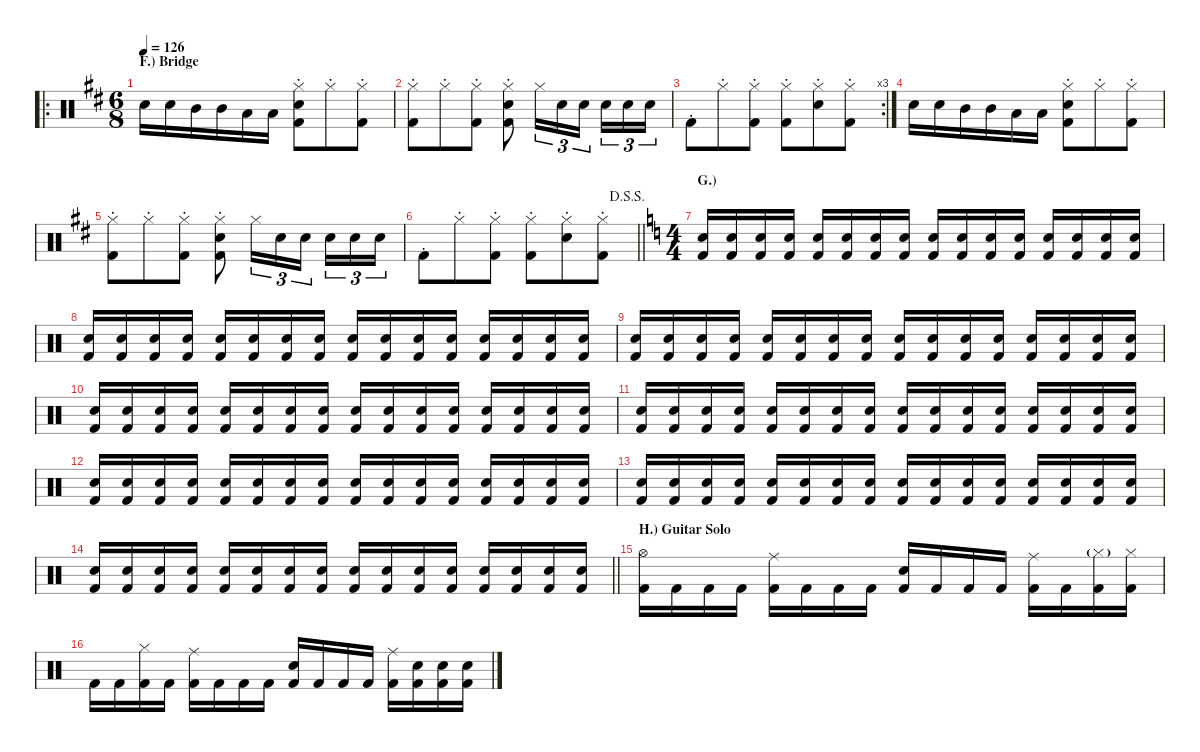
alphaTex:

\defaultSystemsLayout 4
\hideDynamics
\bracketExtendMode nobrackets
\singleTrackTrackNamePolicy hidden
\multiTrackTrackNamePolicy hidden
\firstSystemTrackNameMode fullname
\firstSystemTrackNameOrientation horizontal
\otherSystemsTrackNameOrientation horizontal
\track ("Drums" "drm.") {instrument percussion}
\staff {score}
\articulation defaults
\ro
\ts (6 8)
\section ("" "F.) Bridge")
\tempo 126
\clef neutral
\ks d "Snare (hit) 2"{acc forcenatural}.16{dy f beam Down} "Snare (hit) 2"{acc forcenatural}.16{beam Down} "Mid Tom (hit)"{acc forcenatural}.16{beam Down} "Mid Tom (hit)"{acc forcenatural}.16{beam Down} "Low Tom (hit)"{acc forcenatural}.16{beam Down} "Low Tom (hit)"{acc forcenatural}.16{beam Down}
("Snare (hit) 2"{st acc forcenatural} "Hi-Hat (closed)"{st acc forcenatural} "Kick (hit) 2"{st acc forcenatural}).8{beam Down} "Hi-Hat (closed)"{st acc forcenatural}.8{beam Down} ("Hi-Hat (closed)"{st acc forcenatural} "Kick (hit) 2"{st acc forcenatural}).8{beam Down} |
("Hi-Hat (closed)"{st acc forcenatural} "Kick (hit) 2"{st acc forcenatural}).8{beam Down} "Hi-Hat (closed)"{st acc forcenatural}.8{beam Down} ("Hi-Hat (closed)"{st acc forcenatural} "Kick (hit) 2"{st acc forcenatural}).8{beam Down} ("Snare (hit) 2"{st acc forcenatural} "Hi-Hat (closed)"{st acc forcenatural} "Kick (hit) 2"{st acc forcenatural}).8{beam Down} "Hi-Hat (closed)"{acc forcenatural}.16{tu (3 2) beam Down} "Snare (hit) 2"{acc forcenatural}.16{tu (3 2) beam Down} "Snare (hit) 2"{acc forcenatural}.16{tu (3 2) beam Down} "Snare (hit) 2"{acc forcenatural}.16{tu (3 2) beam Down} "Snare (hit) 2"{acc forcenatural}.16{tu (3 2) beam Down} "Snare (hit) 2"{acc forcenatural}.16{tu (3 2) beam Down} |
\rc 3 "Kick (hit) 2"{st acc forcenatural}.8{beam Down} "Hi-Hat (closed)"{st acc forcenatural}.8{beam Down}
("Hi-Hat (closed)"{st acc forcenatural} "Kick (hit) 2"{st acc forcenatural}).8{beam Down} ("Hi-Hat (closed)"{st acc forcenatural} "Kick (hit) 2"{st acc forcenatural}).8{beam Down} ("Snare (hit) 2"{st acc forcenatural} "Hi-Hat (closed)"{st acc forcenatural}).8{beam Down} ("Hi-Hat (closed)"{st acc forcenatural} "Kick (hit) 2"{st acc forcenatural}).8{beam Down} |
"Snare (hit) 2"{acc forcenatural}.16{beam Down} "Snare (hit) 2"{acc forcenatural}.16{beam Down} "Mid Tom (hit)"{acc forcenatural}.16{beam Down} "Mid Tom (hit)"{acc forcenatural}.16{beam Down} "Low Tom (hit)"{acc forcenatural}.16{beam Down} "Low Tom (hit)"{acc forcenatural}.16{beam Down} ("Snare (hit) 2"{st acc forcenatural} "Hi-Hat (closed)"{st acc forcenatural} "Kick (hit) 2"{st acc forcenatural}).8{beam Down} "Hi-Hat (closed)"{st acc forcenatural}.8{beam Down} ("Hi-Hat (closed)"{st acc forcenatural} "Kick (hit) 2"{st acc forcenatural}).8{beam Down} |
("Hi-Hat (closed)"{st acc forcenatural} "Kick (hit) 2"{st acc forcenatural}).8{beam Down} "Hi-Hat (closed)"{st acc forcenatural}.8{beam Down} ("Hi-Hat (closed)"{st acc forcenatural} "Kick (hit) 2"{st acc forcenatural}).8{beam Down} ("Snare (hit) 2"{st acc forcenatural} "Hi-Hat (closed)"{st acc forcenatural} "Kick (hit) 2"{st acc forcenatural}).8{beam Down} "Hi-Hat (closed)"{acc forcenatural}.16{tu (3 2) beam Down} "Snare (hit) 2"{acc forcenatural}.16{tu (3 2) beam Down} "Snare (hit) 2"{acc forcenatural}.16{tu (3 2) beam Down} "Snare (hit) 2"{acc forcenatural}.16{tu (3 2) beam Down} "Snare (hit) 2"{acc forcenatural}.16{tu (3 2) beam Down} "Snare (hit) 2"{acc forcenatural}.16{tu (3 2) beam Down} |
\jump dalsegnosegno
\barLineRight lightlight "Kick (hit) 2"{st acc forcenatural}.8{beam Down} "Hi-Hat (closed)"{st acc forcenatural}.8{beam Down}
("Hi-Hat (closed)"{st acc forcenatural} "Kick (hit) 2"{st acc forcenatural}).8{beam Down} ("Hi-Hat (closed)"{st acc forcenatural} "Kick (hit) 2"{st acc forcenatural}).8{beam Down} ("Snare (hit) 2"{st acc forcenatural} "Hi-Hat (closed)"{st acc forcenatural}).8{beam Down} ("Hi-Hat (closed)"{st acc forcenatural} "Kick (hit) 2"{st acc forcenatural}).8{beam Down} |
\ts (4 4)
\beaming (8 2 2 2 2)
\section ("" "G.) ")
\ks c
("Snare (hit) 2" "Kick (hit) 2").16{beam Up} ("Snare (hit) 2" "Kick (hit) 2").16{dy p beam Up} ("Snare (hit) 2" "Kick (hit) 2").16{beam Up} ("Snare (hit) 2" "Kick (hit) 2").16{dy f beam Up} ("Snare (hit) 2" "Kick (hit) 2").16{beam Up} ("Snare (hit) 2" "Kick (hit) 2").16{dy p beam Up} ("Snare (hit) 2" "Kick (hit) 2").16{beam Up} ("Snare (hit) 2" "Kick (hit) 2").16{dy f beam Up} ("Snare (hit) 2" "Kick (hit) 2").16{beam Up} ("Snare (hit) 2" "Kick (hit) 2").16{dy p beam Up} ("Snare (hit) 2" "Kick (hit) 2").16{beam Up} ("Snare (hit) 2" "Kick (hit) 2").16{dy f beam Up} ("Snare (hit) 2" "Kick (hit) 2").16{beam Up} ("Snare (hit) 2" "Kick (hit) 2").16{dy p beam Up} ("Snare (hit) 2" "Kick (hit) 2").16{beam Up} ("Snare (hit) 2" "Kick (hit) 2").16{dy f beam Up} |
("Snare (hit) 2" "Kick (hit) 2").16{beam Up} ("Snare (hit) 2" "Kick (hit) 2").16{dy p beam Up} ("Snare (hit) 2" "Kick (hit) 2").16{beam Up} ("Snare (hit) 2" "Kick (hit) 2").16{dy f beam Up} ("Snare (hit) 2" "Kick (hit) 2").16{beam Up} ("Snare (hit) 2" "Kick (hit) 2").16{dy p beam Up} ("Snare (hit) 2" "Kick (hit) 2").16{beam Up} ("Snare (hit) 2" "Kick (hit) 2").16{dy f beam Up} ("Snare (hit) 2" "Kick (hit) 2").16{beam Up} ("Snare (hit) 2" "Kick (hit) 2").16{dy p beam Up} ("Snare (hit) 2" "Kick (hit) 2").16{beam Up} ("Snare (hit) 2" "Kick (hit) 2").16{dy f beam Up} ("Snare (hit) 2" "Kick (hit) 2").16{beam Up} ("Snare (hit) 2" "Kick (hit) 2").16{dy p beam Up} ("Snare (hit) 2" "Kick (hit) 2").16{beam Up} ("Snare (hit) 2" "Kick (hit) 2").16{dy f beam Up} |
("Snare (hit) 2" "Kick (hit) 2").16{beam Up} ("Snare (hit) 2" "Kick (hit) 2").16{dy p beam Up} ("Snare (hit) 2" "Kick (hit) 2").16{beam Up} ("Snare (hit) 2" "Kick (hit) 2").16{dy f beam Up} ("Snare (hit) 2" "Kick (hit) 2").16{beam Up} ("Snare (hit) 2" "Kick (hit) 2").16{dy p beam Up} ("Snare (hit) 2" "Kick (hit) 2").16{beam Up} ("Snare (hit) 2" "Kick (hit) 2").16{dy f beam Up} ("Snare (hit) 2" "Kick (hit) 2").16{beam Up} ("Snare (hit) 2" "Kick (hit) 2").16{dy p beam Up} ("Snare (hit) 2" "Kick (hit) 2").16{beam Up} ("Snare (hit) 2" "Kick (hit) 2").16{dy f beam Up} ("Snare (hit) 2" "Kick (hit) 2").16{beam Up} ("Snare (hit) 2" "Kick (hit) 2").16{dy p beam Up} ("Snare (hit) 2" "Kick (hit) 2").16{beam Up} ("Snare (hit) 2" "Kick (hit) 2").16{dy f beam Up} |
("Snare (hit) 2" "Kick (hit) 2").16{beam Up} ("Snare (hit) 2" "Kick (hit) 2").16{dy p beam Up} ("Snare (hit) 2" "Kick (hit) 2").16{beam Up} ("Snare (hit) 2" "Kick (hit) 2").16{dy f beam Up} ("Snare (hit) 2" "Kick (hit) 2").16{beam Up} ("Snare (hit) 2" "Kick (hit) 2").16{dy p beam Up} ("Snare (hit) 2" "Kick (hit) 2").16{beam Up} ("Snare (hit) 2" "Kick (hit) 2").16{dy f beam Up} ("Snare (hit) 2" "Kick (hit) 2").16{beam Up} ("Snare (hit) 2" "Kick (hit) 2").16{dy p beam Up} ("Snare (hit) 2" "Kick (hit) 2").16{beam Up} ("Snare (hit) 2" "Kick (hit) 2").16{dy f beam Up} ("Snare (hit) 2" "Kick (hit) 2").16{beam Up} ("Snare (hit) 2" "Kick (hit) 2").16{dy p beam Up} ("Snare (hit) 2" "Kick (hit) 2").16{beam Up} ("Snare (hit) 2" "Kick (hit) 2").16{dy f beam Up} |
("Snare (hit) 2" "Kick (hit) 2").16{beam Up} ("Snare (hit) 2" "Kick (hit) 2").16{beam Up} ("Snare (hit) 2" "Kick (hit) 2").16{beam Up} ("Snare (hit) 2" "Kick (hit) 2").16{beam Up} ("Snare (hit) 2" "Kick (hit) 2").16{beam Up} ("Snare (hit) 2" "Kick (hit) 2").16{beam Up} ("Snare (hit) 2" "Kick (hit) 2").16{beam Up} ("Snare (hit) 2" "Kick (hit) 2").16{beam Up} ("Snare (hit) 2" "Kick (hit) 2").16{beam Up} ("Snare (hit) 2" "Kick (hit) 2").16{beam Up} ("Snare (hit) 2" "Kick (hit) 2").16{beam Up} ("Snare (hit) 2" "Kick (hit) 2").16{beam Up} ("Snare (hit) 2" "Kick (hit) 2").16{beam Up} ("Snare (hit) 2" "Kick (hit) 2").16{beam Up} ("Snare (hit) 2" "Kick (hit) 2").16{beam Up} ("Snare (hit) 2" "Kick (hit) 2").16{beam Up} |
("Snare (hit) 2" "Kick (hit) 2").16{beam Up} ("Snare (hit) 2" "Kick (hit) 2").16{beam Up} ("Snare (hit) 2" "Kick (hit) 2").16{beam Up} ("Snare (hit) 2" "Kick (hit) 2").16{beam Up} ("Snare (hit) 2" "Kick (hit) 2").16{beam Up} ("Snare (hit) 2" "Kick (hit) 2").16{beam Up} ("Snare (hit) 2" "Kick (hit) 2").16{beam Up} ("Snare (hit) 2" "Kick (hit) 2").16{beam Up} ("Snare (hit) 2" "Kick (hit) 2").16{beam Up} ("Snare (hit) 2" "Kick (hit) 2").16{beam Up} ("Snare (hit) 2" "Kick (hit) 2").16{beam Up} ("Snare (hit) 2" "Kick (hit) 2").16{beam Up} ("Snare (hit) 2" "Kick (hit) 2").16{beam Up} ("Snare (hit) 2" "Kick (hit) 2").16{beam Up} ("Snare (hit) 2" "Kick (hit) 2").16{beam Up} ("Snare (hit) 2" "Kick (hit) 2").16{beam Up} |
("Snare (hit) 2" "Kick (hit) 2").16{beam Up} ("Snare (hit) 2" "Kick (hit) 2").16{beam Up} ("Snare (hit) 2" "Kick (hit) 2").16{beam Up} ("Snare (hit) 2" "Kick (hit) 2").16{beam Up} ("Snare (hit) 2" "Kick (hit) 2").16{beam Up} ("Snare (hit) 2" "Kick (hit) 2").16{beam Up} ("Snare (hit) 2" "Kick (hit) 2").16{beam Up} ("Snare (hit) 2" "Kick (hit) 2").16{beam Up} ("Snare (hit) 2" "Kick (hit) 2").16{beam Up} ("Snare (hit) 2" "Kick (hit) 2").16{beam Up} ("Snare (hit) 2" "Kick (hit) 2").16{beam Up} ("Snare (hit) 2" "Kick (hit) 2").16{beam Up} ("Snare (hit) 2" "Kick (hit) 2").16{beam Up} ("Snare (hit) 2" "Kick (hit) 2").16{beam Up} ("Snare (hit) 2" "Kick (hit) 2").16{beam Up} ("Snare (hit) 2" "Kick (hit) 2").16{beam Up} |
\barLineRight lightlight
("Snare (hit) 2" "Kick (hit) 2").16{beam Up} ("Snare (hit) 2" "Kick (hit) 2").16{beam Up} ("Snare (hit) 2" "Kick (hit) 2").16{beam Up} ("Snare (hit) 2" "Kick (hit) 2").16{beam Up} ("Snare (hit) 2" "Kick (hit) 2").16{beam Up} ("Snare (hit) 2" "Kick (hit) 2").16{beam Up} ("Snare (hit) 2" "Kick (hit) 2").16{beam Up} ("Snare (hit) 2" "Kick (hit) 2").16{beam Up} ("Snare (hit) 2" "Kick (hit) 2").16{beam Up} ("Snare (hit) 2" "Kick (hit) 2").16{beam Up} ("Snare (hit) 2" "Kick (hit) 2").16{beam Up} ("Snare (hit) 2" "Kick (hit) 2").16{beam Up} ("Snare (hit) 2" "Kick (hit) 2").16{beam Up} ("Snare (hit) 2" "Kick (hit) 2").16{beam Up} ("Snare (hit) 2" "Kick (hit) 2").16{beam Up} ("Snare (hit) 2" "Kick (hit) 2").16{beam Up} |
\section ("" "H.) Guitar Solo")
("Hi-Hat (open)" "Kick (hit) 2").16{beam Down} "Kick (hit) 2".16{beam Down} "Kick (hit) 2".16{beam Down} "Kick (hit) 2".16{beam Down} ("Ride (middle)" "Kick (hit) 2").16{beam Down} "Kick (hit) 2".16{beam Down} "Kick (hit) 2".16{beam Down} "Kick (hit) 2".16{beam Down} ("Snare (hit) 2" "Kick (hit) 2").16{beam Up} "Kick (hit) 2".16{beam Up} "Kick (hit) 2".16{beam Up} "Kick (hit) 2".16{beam Up} ("Ride (middle)" "Kick (hit) 2").16{beam Down} "Kick (hit) 2".16{beam Down} ("Hi-Hat (closed)"{g} "Kick (hit) 2").16{beam Down} ("Hi-Hat (closed)" "Kick (hit) 2").16{beam Down} |
"Kick (hit) 2".16{beam Down} "Kick (hit) 2".16{beam Down} ("Hi-Hat (closed)" "Kick (hit) 2").16{beam Down} "Kick (hit) 2".16{beam Down} ("Ride (middle)" "Kick (hit) 2").16{beam Down} "Kick (hit) 2".16{beam Down} "Kick (hit) 2".16{beam Down} "Kick (hit) 2".16{beam Down} ("Snare (hit) 2" "Kick (hit) 2").16{beam Up} "Kick (hit) 2".16{beam Up} "Kick (hit) 2".16{beam Up} "Kick (hit) 2".16{beam Up} ("Ride (middle)" "Kick (hit) 2").16{beam Down} ("Snare (hit) 2" "Kick (hit) 2").16{beam Down} ("Snare (hit) 2" "Kick (hit) 2").16{beam Down} ("Snare (hit) 2" "Kick (hit) 2").16{beam Down}
